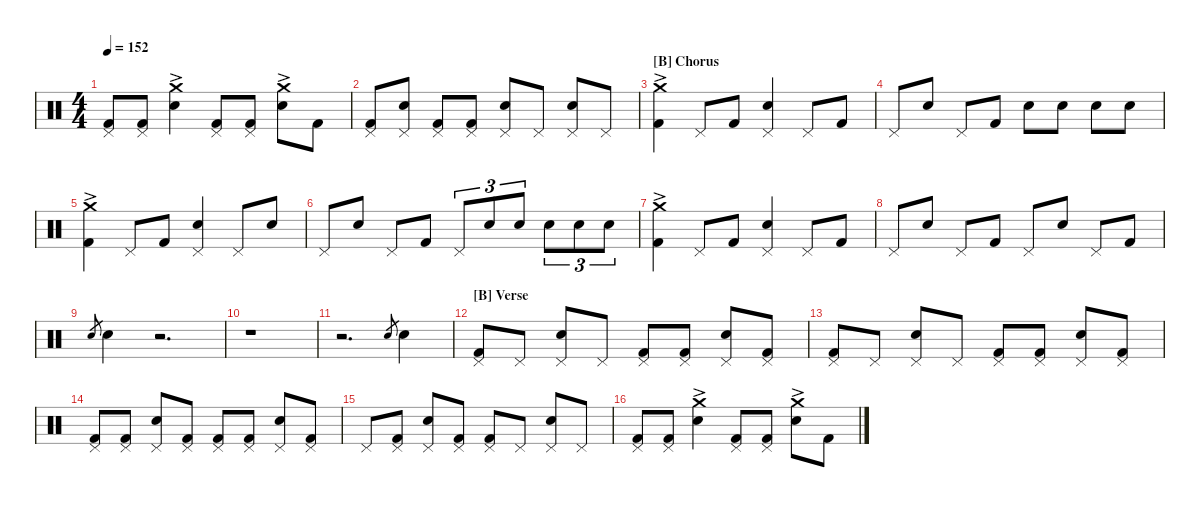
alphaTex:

\hideDynamics
\bracketExtendMode nobrackets
\singleTrackTrackNamePolicy hidden
\multiTrackTrackNamePolicy hidden
\firstSystemTrackNameMode fullname
\firstSystemTrackNameOrientation horizontal
\otherSystemsTrackNameOrientation horizontal
\track ("Drumkit" "Drums") {instrument percussion}
\staff {score}
\articulation defaults
\ts (4 4)
\tempo 152
\clef neutral
\ks c
("Pedal Hi-Hat (hit)" "Kick (hit) 2").8{dy f beam Up} ("Pedal Hi-Hat (hit)" "Kick (hit) 2").8{beam Up} ("Crash medium (hit)"{ac} "Snare (hit) 2").4{beam Down} ("Pedal Hi-Hat (hit)" "Kick (hit) 2").8{beam Up} ("Pedal Hi-Hat (hit)" "Kick (hit) 2").8{beam Up} ("Crash medium (hit)"{ac} "Snare (hit) 2").8{beam Down} "Kick (hit) 2".8{beam Down} |
("Pedal Hi-Hat (hit)" "Kick (hit) 2").8{beam Up} ("Pedal Hi-Hat (hit)" "Snare (hit) 2").8{beam Up} ("Pedal Hi-Hat (hit)" "Kick (hit) 2").8{beam Up} ("Pedal Hi-Hat (hit)" "Kick (hit) 2").8{beam Up} ("Pedal Hi-Hat (hit)" "Snare (hit) 2").8{beam Up} "Pedal Hi-Hat (hit)".8{beam Up} ("Pedal Hi-Hat (hit)" "Snare (hit) 2").8{beam Up} "Pedal Hi-Hat (hit)".8{beam Up} |
\section ("B" "Chorus")
("Crash medium (hit)"{ac} "Kick (hit) 2").4{beam Down} "Pedal Hi-Hat (hit)".8{beam Up} "Kick (hit) 2".8{beam Up} ("Pedal Hi-Hat (hit)" "Snare (hit) 2").4{beam Up} "Pedal Hi-Hat (hit)".8{beam Up} "Kick (hit) 2".8{beam Up} |
"Pedal Hi-Hat (hit)".8{beam Up} "Snare (hit) 2".8{beam Up} "Pedal Hi-Hat (hit)".8{beam Up} "Kick (hit) 2".8{beam Up} "Snare (hit) 2".8{beam Down} "Snare (hit) 2".8{beam Down} "Snare (hit) 2".8{beam Down} "Snare (hit) 2".8{beam Down} |
("Crash medium (hit)"{ac} "Kick (hit) 2").4{beam Down} "Pedal Hi-Hat (hit)".8{beam Up} "Kick (hit) 2".8{beam Up} ("Pedal Hi-Hat (hit)" "Snare (hit) 2").4{beam Up} "Pedal Hi-Hat (hit)".8{beam Up} "Snare (hit) 2".8{beam Up} |
"Pedal Hi-Hat (hit)".8{beam Up} "Snare (hit) 2".8{beam Up} "Pedal Hi-Hat (hit)".8{beam Up} "Kick (hit) 2".8{beam Up} "Pedal Hi-Hat (hit)".8{tu (3 2) beam Up} "Snare (hit) 2".8{tu (3 2) beam Up} "Snare (hit) 2".8{tu (3 2) beam Up} "Snare (hit) 2".8{tu (3 2) beam Down} "Snare (hit) 2".8{tu (3 2) beam Down} "Snare (hit) 2".8{tu (3 2) beam Down} |
("Crash medium (hit)"{ac} "Kick (hit) 2").4{beam Down} "Pedal Hi-Hat (hit)".8{beam Up} "Kick (hit) 2".8{beam Up} ("Pedal Hi-Hat (hit)" "Snare (hit) 2").4{beam Up} "Pedal Hi-Hat (hit)".8{beam Up} "Kick (hit) 2".8{beam Up} |
"Pedal Hi-Hat (hit)".8{beam Up} "Snare (hit) 2".8{beam Up} "Pedal Hi-Hat (hit)".8{beam Up} "Kick (hit) 2".8{beam Up} "Pedal Hi-Hat (hit)".8{beam Up} "Snare (hit) 2".8{beam Up} "Pedal Hi-Hat (hit)".8{beam Up} "Kick (hit) 2".8{beam Up} |
"Snare (hit) 2".8{gr dy mf beam Up} "Snare (hit) 2".4{dy f beam Down} r.2{d beam Down} |
r.1{beam Down} |
r.2{d beam Down} "Snare (hit) 2".8{gr dy mf beam Up} "Snare (hit) 2".4{dy f beam Down} |
\section ("B" "Verse")
("Pedal Hi-Hat (hit)" "Kick (hit) 2").8{beam Up} "Pedal Hi-Hat (hit)".8{beam Up} ("Pedal Hi-Hat (hit)" "Snare (hit) 2").8{beam Up} "Pedal Hi-Hat (hit)".8{beam Up} ("Pedal Hi-Hat (hit)" "Kick (hit) 2").8{beam Up} ("Pedal Hi-Hat (hit)" "Kick (hit) 2").8{beam Up} ("Pedal Hi-Hat (hit)" "Snare (hit) 2").8{beam Up} ("Pedal Hi-Hat (hit)" "Kick (hit) 2").8{beam Up} |
("Pedal Hi-Hat (hit)" "Kick (hit) 2").8{beam Up} "Pedal Hi-Hat (hit)".8{beam Up} ("Pedal Hi-Hat (hit)" "Snare (hit) 2").8{beam Up} "Pedal Hi-Hat (hit)".8{beam Up} ("Pedal Hi-Hat (hit)" "Kick (hit) 2").8{beam Up} ("Pedal Hi-Hat (hit)" "Kick (hit) 2").8{beam Up} ("Pedal Hi-Hat (hit)" "Snare (hit) 2").8{beam Up} ("Pedal Hi-Hat (hit)" "Kick (hit) 2").8{beam Up} |
("Pedal Hi-Hat (hit)" "Kick (hit) 2").8{beam Up} ("Pedal Hi-Hat (hit)" "Kick (hit) 2").8{beam Up} ("Pedal Hi-Hat (hit)" "Snare (hit) 2").8{beam Up} ("Pedal Hi-Hat (hit)" "Kick (hit) 2").8{beam Up} ("Pedal Hi-Hat (hit)" "Kick (hit) 2").8{beam Up} ("Pedal Hi-Hat (hit)" "Kick (hit) 2").8{beam Up} ("Pedal Hi-Hat (hit)" "Snare (hit) 2").8{beam Up} ("Pedal Hi-Hat (hit)" "Kick (hit) 2").8{beam Up} |
"Pedal Hi-Hat (hit)".8{beam Up} ("Pedal Hi-Hat (hit)" "Kick (hit) 2").8{beam Up} ("Pedal Hi-Hat (hit)" "Snare (hit) 2").8{beam Up} ("Pedal Hi-Hat (hit)" "Kick (hit) 2").8{beam Up} ("Pedal Hi-Hat (hit)" "Kick (hit) 2").8{beam Up} "Pedal Hi-Hat (hit)".8{beam Up} ("Pedal Hi-Hat (hit)" "Snare (hit) 2").8{beam Up} "Pedal Hi-Hat (hit)".8{beam Up} |
("Pedal Hi-Hat (hit)" "Kick (hit) 2").8{beam Up} ("Pedal Hi-Hat (hit)" "Kick (hit) 2").8{beam Up} ("Crash medium (hit)"{ac} "Snare (hit) 2").4{beam Down} ("Pedal Hi-Hat (hit)" "Kick (hit) 2").8{beam Up} ("Pedal Hi-Hat (hit)" "Kick (hit) 2").8{beam Up} ("Crash medium (hit)"{ac} "Snare (hit) 2").8{beam Down} "Kick (hit) 2".8{beam Down}
